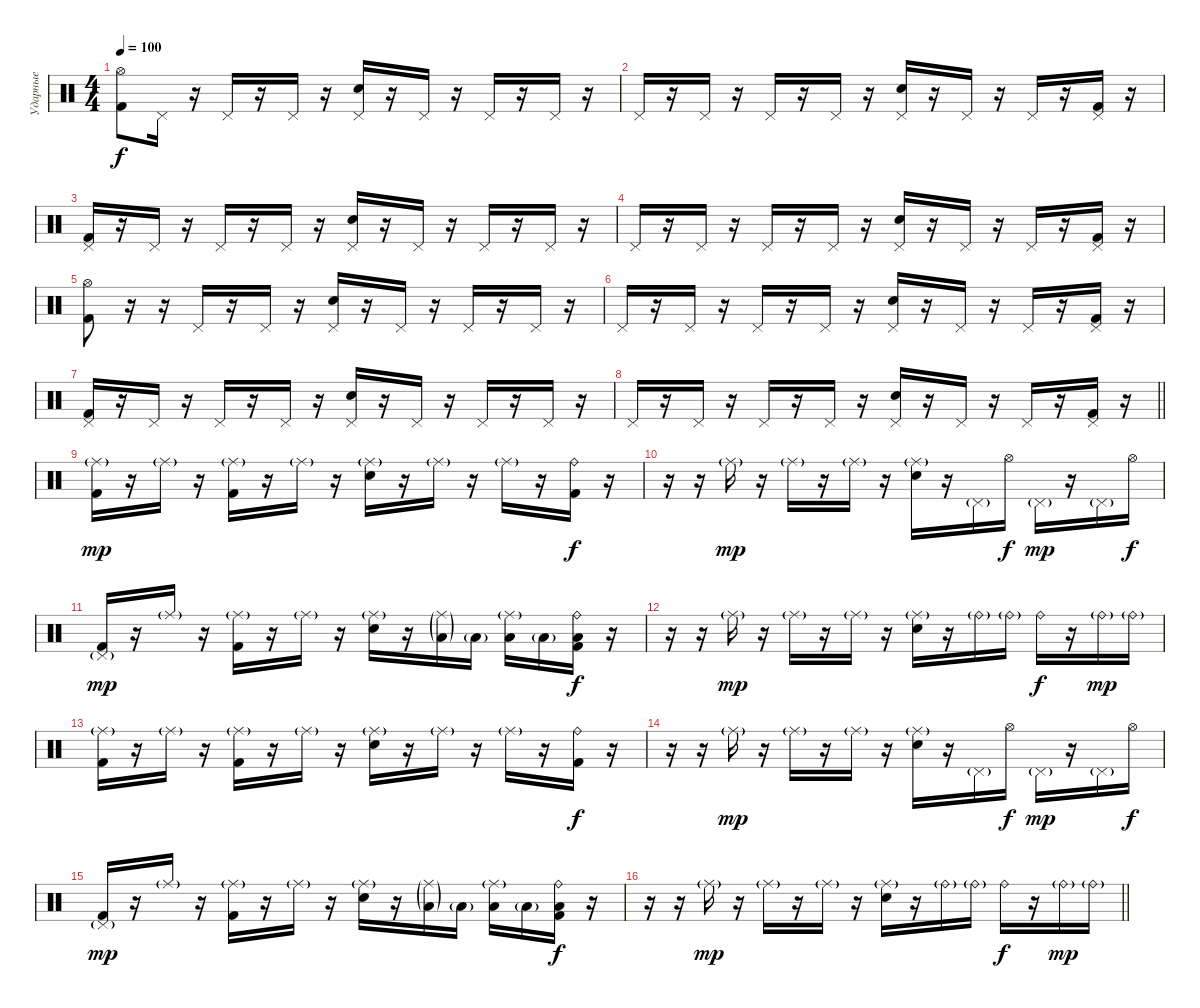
\track ("Ударные" "Ударные") {instrument percussion}
\staff {score}
\articulation defaults
\ts (4 4)
\section ("" "")
\tempo 100
\clef neutral
\ks c
("Hi-Hat (open)" "Kick (hit) 2").8{dy f} "Pedal Hi-Hat (hit)".16 r.16 "Pedal Hi-Hat (hit)".16 r.16 "Pedal Hi-Hat (hit)".16 r.16 ("Pedal Hi-Hat (hit)" "Electric Snare (hit)").16 r.16 "Pedal Hi-Hat (hit)".16 r.16 "Pedal Hi-Hat (hit)".16 r.16 "Pedal Hi-Hat (hit)".16 r.16 |
"Pedal Hi-Hat (hit)".16 r.16 "Pedal Hi-Hat (hit)".16 r.16 "Pedal Hi-Hat (hit)".16 r.16 "Pedal Hi-Hat (hit)".16 r.16 ("Pedal Hi-Hat (hit)" "Electric Snare (hit)").16 r.16 "Pedal Hi-Hat (hit)".16 r.16 "Pedal Hi-Hat (hit)".16 r.16 ("Pedal Hi-Hat (hit)" "Kick (hit) 2").16 r.16 |
("Pedal Hi-Hat (hit)" "Kick (hit) 2").16 r.16 "Pedal Hi-Hat (hit)".16 r.16 "Pedal Hi-Hat (hit)".16 r.16 "Pedal Hi-Hat (hit)".16 r.16 ("Pedal Hi-Hat (hit)" "Electric Snare (hit)").16 r.16 "Pedal Hi-Hat (hit)".16 r.16 "Pedal Hi-Hat (hit)".16 r.16 "Pedal Hi-Hat (hit)".16 r.16 |
"Pedal Hi-Hat (hit)".16 r.16 "Pedal Hi-Hat (hit)".16 r.16 "Pedal Hi-Hat (hit)".16 r.16 "Pedal Hi-Hat (hit)".16 r.16 ("Pedal Hi-Hat (hit)" "Electric Snare (hit)").16 r.16 "Pedal Hi-Hat (hit)".16 r.16 "Pedal Hi-Hat (hit)".16 r.16 ("Pedal Hi-Hat (hit)" "Kick (hit) 2").16 r.16 |
("Hi-Hat (open)" "Kick (hit) 2").8 r.16 r.16 "Pedal Hi-Hat (hit)".16 r.16 "Pedal Hi-Hat (hit)".16 r.16 ("Pedal Hi-Hat (hit)" "Electric Snare (hit)").16 r.16 "Pedal Hi-Hat (hit)".16 r.16 "Pedal Hi-Hat (hit)".16 r.16 "Pedal Hi-Hat (hit)".16 r.16 |
"Pedal Hi-Hat (hit)".16 r.16 "Pedal Hi-Hat (hit)".16 r.16 "Pedal Hi-Hat (hit)".16 r.16 "Pedal Hi-Hat (hit)".16 r.16 ("Pedal Hi-Hat (hit)" "Electric Snare (hit)").16 r.16 "Pedal Hi-Hat (hit)".16 r.16 "Pedal Hi-Hat (hit)".16 r.16 ("Pedal Hi-Hat (hit)" "Kick (hit) 2").16 r.16 |
("Pedal Hi-Hat (hit)" "Kick (hit) 2").16 r.16 "Pedal Hi-Hat (hit)".16 r.16 "Pedal Hi-Hat (hit)".16 r.16 "Pedal Hi-Hat (hit)".16 r.16 ("Pedal Hi-Hat (hit)" "Electric Snare (hit)").16 r.16 "Pedal Hi-Hat (hit)".16 r.16 "Pedal Hi-Hat (hit)".16 r.16 "Pedal Hi-Hat (hit)".16 r.16 |
\barLineRight lightlight "Pedal Hi-Hat (hit)".16
r.16 "Pedal Hi-Hat (hit)".16 r.16 "Pedal Hi-Hat (hit)".16 r.16 "Pedal Hi-Hat (hit)".16 r.16 ("Pedal Hi-Hat (hit)" "Electric Snare (hit)").16 r.16 "Pedal Hi-Hat (hit)".16 r.16 "Pedal Hi-Hat (hit)".16 r.16 ("Pedal Hi-Hat (hit)" "Kick (hit) 2").16 r.16 |
\section ("" "")
("Ride (middle)"{g} "Kick (hit) 2").16{dy mp} r.16 "Ride (middle)"{g}.16 r.16 ("Ride (middle)"{g} "Kick (hit) 2").16 r.16 "Ride (middle)"{g}.16 r.16 ("Ride (middle)"{g} "Electric Snare (hit)").16 r.16 "Ride (middle)"{g}.16 r.16 "Ride (middle)"{g}.16 r.16 ("Ride (bell)" "Kick (hit) 2").16{dy f} r.16 |
r.16 r.16 "Ride (middle)"{g}.16{dy mp} r.16 "Ride (middle)"{g}.16 r.16 "Ride (middle)"{g}.16 r.16 ("Ride (middle)"{g} "Electric Snare (hit)").16 r.16 "Pedal Hi-Hat (hit)"{g}.16 "Hi-Hat (open)".16{dy f} "Pedal Hi-Hat (hit)"{g}.16{dy mp} r.16 "Pedal Hi-Hat (hit)"{g}.16 "Hi-Hat (open)".16{dy f} |
("Pedal Hi-Hat (hit)"{g} "Kick (hit) 2").16{dy mp} r.16 "Ride (middle)"{g}.16 r.16 ("Ride (middle)"{g} "Kick (hit) 2").16 r.16 "Ride (middle)"{g}.16 r.16 ("Ride (middle)"{g} "Electric Snare (hit)").16 r.16 ("Ride (middle)"{g} "Low Tom (hit)"{g}).16 "Low Tom (hit)"{g}.16 ("Ride (middle)"{g} "Low Tom (hit)").16 "Low Floor Tom (hit)"{g}.16 ("Ride (bell)" "Low Floor Tom (hit)" "Kick (hit) 2").16{dy f} r.16 |
r.16 r.16 "Ride (middle)"{g}.16{dy mp} r.16 "Ride (middle)"{g}.16 r.16 "Ride (middle)"{g}.16 r.16 ("Ride (middle)"{g} "Electric Snare (hit)").16 r.16 "Ride (bell)"{g}.16 "Ride (bell)"{g}.16 "Ride (bell)".16{dy f} r.16 "Ride (bell)"{g}.16{dy mp} "Ride (bell)"{g}.16 |
("Ride (middle)"{g} "Kick (hit) 2").16 r.16 "Ride (middle)"{g}.16 r.16 ("Ride (middle)"{g} "Kick (hit) 2").16 r.16 "Ride (middle)"{g}.16 r.16 ("Ride (middle)"{g} "Electric Snare (hit)").16 r.16 "Ride (middle)"{g}.16 r.16 "Ride (middle)"{g}.16 r.16 ("Ride (bell)" "Kick (hit) 2").16{dy f} r.16 |
r.16 r.16 "Ride (middle)"{g}.16{dy mp} r.16 "Ride (middle)"{g}.16 r.16 "Ride (middle)"{g}.16 r.16 ("Ride (middle)"{g} "Electric Snare (hit)").16 r.16 "Pedal Hi-Hat (hit)"{g}.16 "Hi-Hat (open)".16{dy f} "Pedal Hi-Hat (hit)"{g}.16{dy mp} r.16 "Pedal Hi-Hat (hit)"{g}.16 "Hi-Hat (open)".16{dy f} |
("Pedal Hi-Hat (hit)"{g} "Kick (hit) 2").16{dy mp} r.16 "Ride (middle)"{g}.16 r.16 ("Ride (middle)"{g} "Kick (hit) 2").16 r.16 "Ride (middle)"{g}.16 r.16 ("Ride (middle)"{g} "Electric Snare (hit)").16 r.16 ("Ride (middle)"{g} "Low Tom (hit)"{g}).16 "Low Tom (hit)"{g}.16 ("Ride (middle)"{g} "Low Tom (hit)").16 "Low Floor Tom (hit)"{g}.16 ("Ride (bell)" "Low Floor Tom (hit)" "Kick (hit) 2").16{dy f} r.16 |
\barLineRight lightlight
r.16 r.16 "Ride (middle)"{g}.16{dy mp} r.16 "Ride (middle)"{g}.16 r.16 "Ride (middle)"{g}.16 r.16 ("Ride (middle)"{g} "Electric Snare (hit)").16 r.16 "Ride (bell)"{g}.16 "Ride (bell)"{g}.16 "Ride (bell)".16{dy f} r.16 "Ride (bell)"{g}.16{dy mp} "Ride (bell)"{g}.16
